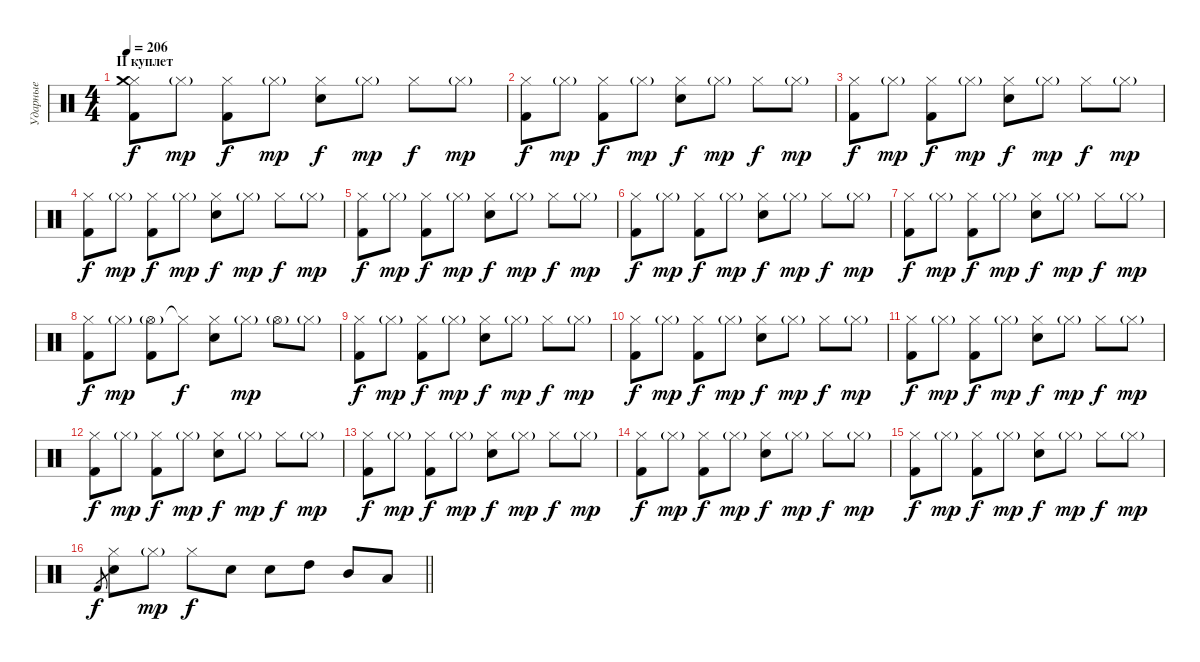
\track ("Ударные" "Ударные") {instrument percussion}
\staff {score}
\articulation defaults
\ts (4 4)
\section ("" "II куплет")
\tempo 206
\clef neutral
\ks c
("Hi-Hat (closed)" "Kick (hit) 2" "Crash medium (hit)").8{dy f} "Hi-Hat (closed)"{g}.8{dy mp} ("Hi-Hat (closed)" "Kick (hit) 2").8{dy f} "Hi-Hat (closed)"{g}.8{dy mp} ("Hi-Hat (closed)" "Electric Snare (hit)").8{dy f} "Hi-Hat (closed)"{g}.8{dy mp} "Hi-Hat (closed)".8{dy f} "Hi-Hat (closed)"{g}.8{dy mp} |
("Hi-Hat (closed)" "Kick (hit) 2").8{dy f} "Hi-Hat (closed)"{g}.8{dy mp} ("Hi-Hat (closed)" "Kick (hit) 2").8{dy f} "Hi-Hat (closed)"{g}.8{dy mp} ("Hi-Hat (closed)" "Electric Snare (hit)").8{dy f} "Hi-Hat (closed)"{g}.8{dy mp} "Hi-Hat (closed)".8{dy f} "Hi-Hat (closed)"{g}.8{dy mp} |
("Hi-Hat (closed)" "Kick (hit) 2").8{dy f} "Hi-Hat (closed)"{g}.8{dy mp} ("Hi-Hat (closed)" "Kick (hit) 2").8{dy f} "Hi-Hat (closed)"{g}.8{dy mp} ("Hi-Hat (closed)" "Electric Snare (hit)").8{dy f} "Hi-Hat (closed)"{g}.8{dy mp} "Hi-Hat (closed)".8{dy f} "Hi-Hat (closed)"{g}.8{dy mp} |
("Hi-Hat (closed)" "Kick (hit) 2").8{dy f} "Hi-Hat (closed)"{g}.8{dy mp} ("Hi-Hat (closed)" "Kick (hit) 2").8{dy f} "Hi-Hat (closed)"{g}.8{dy mp} ("Hi-Hat (closed)" "Electric Snare (hit)").8{dy f} "Hi-Hat (closed)"{g}.8{dy mp} "Hi-Hat (closed)".8{dy f} "Hi-Hat (closed)"{g}.8{dy mp} |
("Hi-Hat (closed)" "Kick (hit) 2").8{dy f} "Hi-Hat (closed)"{g}.8{dy mp} ("Hi-Hat (closed)" "Kick (hit) 2").8{dy f} "Hi-Hat (closed)"{g}.8{dy mp} ("Hi-Hat (closed)" "Electric Snare (hit)").8{dy f} "Hi-Hat (closed)"{g}.8{dy mp} "Hi-Hat (closed)".8{dy f} "Hi-Hat (closed)"{g}.8{dy mp} |
("Hi-Hat (closed)" "Kick (hit) 2").8{dy f} "Hi-Hat (closed)"{g}.8{dy mp} ("Hi-Hat (closed)" "Kick (hit) 2").8{dy f} "Hi-Hat (closed)"{g}.8{dy mp} ("Hi-Hat (closed)" "Electric Snare (hit)").8{dy f} "Hi-Hat (closed)"{g}.8{dy mp} "Hi-Hat (closed)".8{dy f} "Hi-Hat (closed)"{g}.8{dy mp} |
("Hi-Hat (closed)" "Kick (hit) 2").8{dy f} "Hi-Hat (closed)"{g}.8{dy mp} ("Hi-Hat (closed)" "Kick (hit) 2").8{dy f} "Hi-Hat (closed)"{g}.8{dy mp} ("Hi-Hat (closed)" "Electric Snare (hit)").8{dy f} "Hi-Hat (closed)"{g}.8{dy mp} "Hi-Hat (closed)".8{dy f} "Hi-Hat (closed)"{g}.8{dy mp} |
("Hi-Hat (closed)" "Kick (hit) 2").8{dy f} "Hi-Hat (closed)"{g}.8{dy mp} ("Hi-Hat (open)"{g} "Kick (hit) 2").8 "Hi-Hat (closed)"{t}.8{dy f} ("Hi-Hat (closed)" "Electric Snare (hit)").8 "Hi-Hat (closed)"{g}.8{dy mp} "Hi-Hat (open)"{g}.8 "Hi-Hat (closed)"{g}.8 |
("Hi-Hat (closed)" "Kick (hit) 2").8{dy f} "Hi-Hat (closed)"{g}.8{dy mp} ("Hi-Hat (closed)" "Kick (hit) 2").8{dy f} "Hi-Hat (closed)"{g}.8{dy mp} ("Hi-Hat (closed)" "Electric Snare (hit)").8{dy f} "Hi-Hat (closed)"{g}.8{dy mp} "Hi-Hat (closed)".8{dy f} "Hi-Hat (closed)"{g}.8{dy mp} |
("Hi-Hat (closed)" "Kick (hit) 2").8{dy f} "Hi-Hat (closed)"{g}.8{dy mp} ("Hi-Hat (closed)" "Kick (hit) 2").8{dy f} "Hi-Hat (closed)"{g}.8{dy mp} ("Hi-Hat (closed)" "Electric Snare (hit)").8{dy f} "Hi-Hat (closed)"{g}.8{dy mp} "Hi-Hat (closed)".8{dy f} "Hi-Hat (closed)"{g}.8{dy mp} |
("Hi-Hat (closed)" "Kick (hit) 2").8{dy f} "Hi-Hat (closed)"{g}.8{dy mp} ("Hi-Hat (closed)" "Kick (hit) 2").8{dy f} "Hi-Hat (closed)"{g}.8{dy mp} ("Hi-Hat (closed)" "Electric Snare (hit)").8{dy f} "Hi-Hat (closed)"{g}.8{dy mp} "Hi-Hat (closed)".8{dy f} "Hi-Hat (closed)"{g}.8{dy mp} |
("Hi-Hat (closed)" "Kick (hit) 2").8{dy f} "Hi-Hat (closed)"{g}.8{dy mp} ("Hi-Hat (closed)" "Kick (hit) 2").8{dy f} "Hi-Hat (closed)"{g}.8{dy mp} ("Hi-Hat (closed)" "Electric Snare (hit)").8{dy f} "Hi-Hat (closed)"{g}.8{dy mp} "Hi-Hat (closed)".8{dy f} "Hi-Hat (closed)"{g}.8{dy mp} |
("Hi-Hat (closed)" "Kick (hit) 2").8{dy f} "Hi-Hat (closed)"{g}.8{dy mp} ("Hi-Hat (closed)" "Kick (hit) 2").8{dy f} "Hi-Hat (closed)"{g}.8{dy mp} ("Hi-Hat (closed)" "Electric Snare (hit)").8{dy f} "Hi-Hat (closed)"{g}.8{dy mp} "Hi-Hat (closed)".8{dy f} "Hi-Hat (closed)"{g}.8{dy mp} |
("Hi-Hat (closed)" "Kick (hit) 2").8{dy f} "Hi-Hat (closed)"{g}.8{dy mp} ("Hi-Hat (closed)" "Kick (hit) 2").8{dy f} "Hi-Hat (closed)"{g}.8{dy mp} ("Hi-Hat (closed)" "Electric Snare (hit)").8{dy f} "Hi-Hat (closed)"{g}.8{dy mp} "Hi-Hat (closed)".8{dy f} "Hi-Hat (closed)"{g}.8{dy mp} |
("Hi-Hat (closed)" "Kick (hit) 2").8{dy f} "Hi-Hat (closed)"{g}.8{dy mp} ("Hi-Hat (closed)" "Kick (hit) 2").8{dy f} "Hi-Hat (closed)"{g}.8{dy mp} ("Hi-Hat (closed)" "Electric Snare (hit)").8{dy f} "Hi-Hat (closed)"{g}.8{dy mp} "Hi-Hat (closed)".8{dy f} "Hi-Hat (closed)"{g}.8{dy mp} |
\barLineRight lightlight "Kick (hit) 2".8{gr dy f}
("Hi-Hat (closed)" "Electric Snare (hit)").8 "Hi-Hat (closed)"{g}.8{dy mp} "Hi-Hat (closed)".8{dy f} "Electric Snare (hit)".8 "Electric Snare (hit)".8 "High Tom (hit)".8 "Mid Tom (hit)".8 "Low Tom (hit)".8
